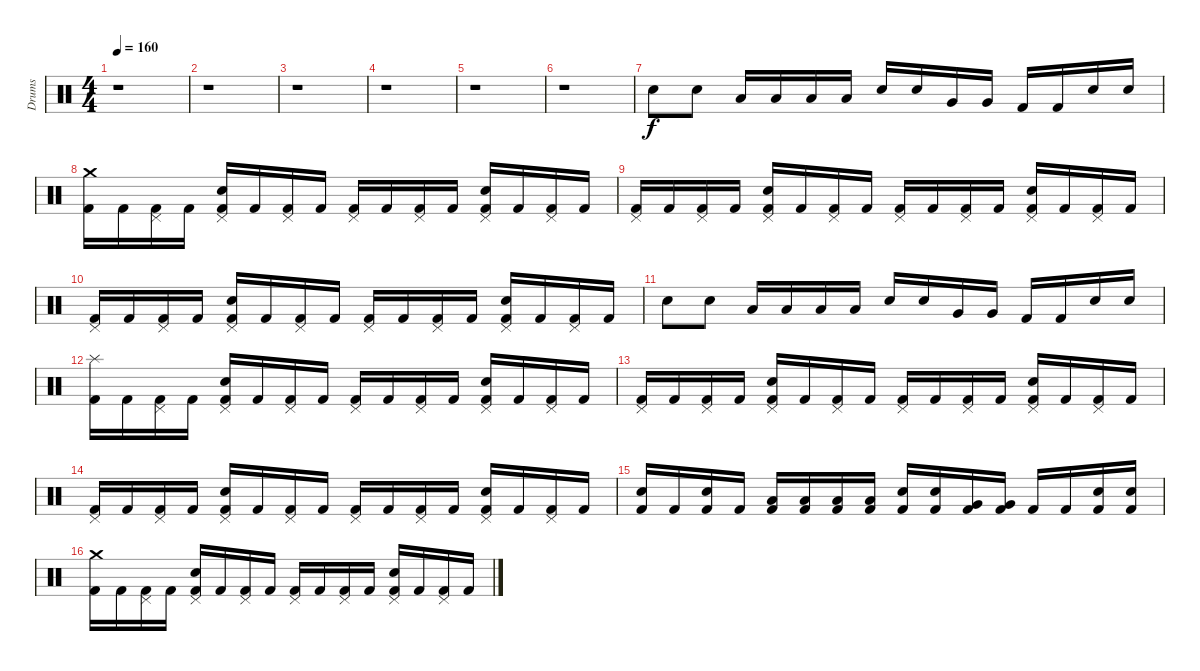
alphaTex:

\track ("Drums" "Drums") {instrument percussion}
\staff {score}
\articulation defaults
\ts (4 4)
\tempo 160
\clef neutral
\ks c
r.1{dy f} |
r.1 |
r.1 |
r.1 |
r.1 |
r.1 |
"Electric Snare (hit)".8 "Electric Snare (hit)".8 "Low Tom (hit)".16 "Low Tom (hit)".16 "Low Tom (hit)".16 "Low Tom (hit)".16 "Electric Snare (hit)".16 "Electric Snare (hit)".16 "Very Low Tom (hit)".16 "Very Low Tom (hit)".16 "Kick (hit) 2".16 "Kick (hit) 2".16 "Electric Snare (hit)".16 "Electric Snare (hit)".16 |
("Crash medium (hit)" "Kick (hit) 2").16 "Kick (hit) 2".16 ("Pedal Hi-Hat (hit)" "Kick (hit) 2").16 "Kick (hit) 2".16 ("Pedal Hi-Hat (hit)" "Electric Snare (hit)" "Kick (hit) 2").16 "Kick (hit) 2".16 ("Pedal Hi-Hat (hit)" "Kick (hit) 2").16 "Kick (hit) 2".16 ("Pedal Hi-Hat (hit)" "Kick (hit) 2").16 "Kick (hit) 2".16 ("Pedal Hi-Hat (hit)" "Kick (hit) 2").16 "Kick (hit) 2".16 ("Pedal Hi-Hat (hit)" "Electric Snare (hit)" "Kick (hit) 2").16 "Kick (hit) 2".16 ("Pedal Hi-Hat (hit)" "Kick (hit) 2").16 "Kick (hit) 2".16 |
("Pedal Hi-Hat (hit)" "Kick (hit) 2").16 "Kick (hit) 2".16 ("Pedal Hi-Hat (hit)" "Kick (hit) 2").16 "Kick (hit) 2".16 ("Pedal Hi-Hat (hit)" "Electric Snare (hit)" "Kick (hit) 2").16 "Kick (hit) 2".16 ("Pedal Hi-Hat (hit)" "Kick (hit) 2").16 "Kick (hit) 2".16 ("Pedal Hi-Hat (hit)" "Kick (hit) 2").16 "Kick (hit) 2".16 ("Pedal Hi-Hat (hit)" "Kick (hit) 2").16 "Kick (hit) 2".16 ("Pedal Hi-Hat (hit)" "Electric Snare (hit)" "Kick (hit) 2").16 "Kick (hit) 2".16 ("Pedal Hi-Hat (hit)" "Kick (hit) 2").16 "Kick (hit) 2".16 |
("Pedal Hi-Hat (hit)" "Kick (hit) 2").16 "Kick (hit) 2".16 ("Pedal Hi-Hat (hit)" "Kick (hit) 2").16 "Kick (hit) 2".16 ("Pedal Hi-Hat (hit)" "Electric Snare (hit)" "Kick (hit) 2").16 "Kick (hit) 2".16 ("Pedal Hi-Hat (hit)" "Kick (hit) 2").16 "Kick (hit) 2".16 ("Pedal Hi-Hat (hit)" "Kick (hit) 2").16 "Kick (hit) 2".16 ("Pedal Hi-Hat (hit)" "Kick (hit) 2").16 "Kick (hit) 2".16 ("Pedal Hi-Hat (hit)" "Electric Snare (hit)" "Kick (hit) 2").16 "Kick (hit) 2".16 ("Pedal Hi-Hat (hit)" "Kick (hit) 2").16 "Kick (hit) 2".16 |
"Electric Snare (hit)".8 "Electric Snare (hit)".8 "Low Tom (hit)".16 "Low Tom (hit)".16 "Low Tom (hit)".16 "Low Tom (hit)".16 "Electric Snare (hit)".16 "Electric Snare (hit)".16 "Very Low Tom (hit)".16 "Very Low Tom (hit)".16 "Kick (hit) 2".16 "Kick (hit) 2".16 "Electric Snare (hit)".16 "Electric Snare (hit)".16 |
("Splash (hit)" "Kick (hit) 2").16 "Kick (hit) 2".16 ("Pedal Hi-Hat (hit)" "Kick (hit) 2").16 "Kick (hit) 2".16 ("Pedal Hi-Hat (hit)" "Electric Snare (hit)" "Kick (hit) 2").16 "Kick (hit) 2".16 ("Pedal Hi-Hat (hit)" "Kick (hit) 2").16 "Kick (hit) 2".16 ("Pedal Hi-Hat (hit)" "Kick (hit) 2").16 "Kick (hit) 2".16 ("Pedal Hi-Hat (hit)" "Kick (hit) 2").16 "Kick (hit) 2".16 ("Pedal Hi-Hat (hit)" "Electric Snare (hit)" "Kick (hit) 2").16 "Kick (hit) 2".16 ("Pedal Hi-Hat (hit)" "Kick (hit) 2").16 "Kick (hit) 2".16 |
("Pedal Hi-Hat (hit)" "Kick (hit) 2").16 "Kick (hit) 2".16 ("Pedal Hi-Hat (hit)" "Kick (hit) 2").16 "Kick (hit) 2".16 ("Pedal Hi-Hat (hit)" "Electric Snare (hit)" "Kick (hit) 2").16 "Kick (hit) 2".16 ("Pedal Hi-Hat (hit)" "Kick (hit) 2").16 "Kick (hit) 2".16 ("Pedal Hi-Hat (hit)" "Kick (hit) 2").16 "Kick (hit) 2".16 ("Pedal Hi-Hat (hit)" "Kick (hit) 2").16 "Kick (hit) 2".16 ("Pedal Hi-Hat (hit)" "Electric Snare (hit)" "Kick (hit) 2").16 "Kick (hit) 2".16 ("Pedal Hi-Hat (hit)" "Kick (hit) 2").16 "Kick (hit) 2".16 |
("Pedal Hi-Hat (hit)" "Kick (hit) 2").16 "Kick (hit) 2".16 ("Pedal Hi-Hat (hit)" "Kick (hit) 2").16 "Kick (hit) 2".16 ("Pedal Hi-Hat (hit)" "Electric Snare (hit)" "Kick (hit) 2").16 "Kick (hit) 2".16 ("Pedal Hi-Hat (hit)" "Kick (hit) 2").16 "Kick (hit) 2".16 ("Pedal Hi-Hat (hit)" "Kick (hit) 2").16 "Kick (hit) 2".16 ("Pedal Hi-Hat (hit)" "Kick (hit) 2").16 "Kick (hit) 2".16 ("Pedal Hi-Hat (hit)" "Electric Snare (hit)" "Kick (hit) 2").16 "Kick (hit) 2".16 ("Pedal Hi-Hat (hit)" "Kick (hit) 2").16 "Kick (hit) 2".16 |
("Electric Snare (hit)" "Kick (hit) 2").16 "Kick (hit) 2".16 ("Electric Snare (hit)" "Kick (hit) 2").16 "Kick (hit) 2".16 ("Low Tom (hit)" "Kick (hit) 2").16 ("Low Tom (hit)" "Kick (hit) 2").16 ("Low Tom (hit)" "Kick (hit) 2").16 ("Low Tom (hit)" "Kick (hit) 2").16 ("Electric Snare (hit)" "Kick (hit) 2").16 ("Electric Snare (hit)" "Kick (hit) 2").16 ("Very Low Tom (hit)" "Kick (hit) 2").16 ("Very Low Tom (hit)" "Kick (hit) 2").16 "Kick (hit) 2".16 "Kick (hit) 2".16 ("Electric Snare (hit)" "Kick (hit) 2").16 ("Electric Snare (hit)" "Kick (hit) 2").16 |
("Crash medium (hit)" "Kick (hit) 2").16 "Kick (hit) 2".16 ("Pedal Hi-Hat (hit)" "Kick (hit) 2").16 "Kick (hit) 2".16 ("Pedal Hi-Hat (hit)" "Electric Snare (hit)" "Kick (hit) 2").16 "Kick (hit) 2".16 ("Pedal Hi-Hat (hit)" "Kick (hit) 2").16 "Kick (hit) 2".16 ("Pedal Hi-Hat (hit)" "Kick (hit) 2").16 "Kick (hit) 2".16 ("Pedal Hi-Hat (hit)" "Kick (hit) 2").16 "Kick (hit) 2".16 ("Pedal Hi-Hat (hit)" "Electric Snare (hit)" "Kick (hit) 2").16 "Kick (hit) 2".16 ("Pedal Hi-Hat (hit)" "Kick (hit) 2").16 "Kick (hit) 2".16
